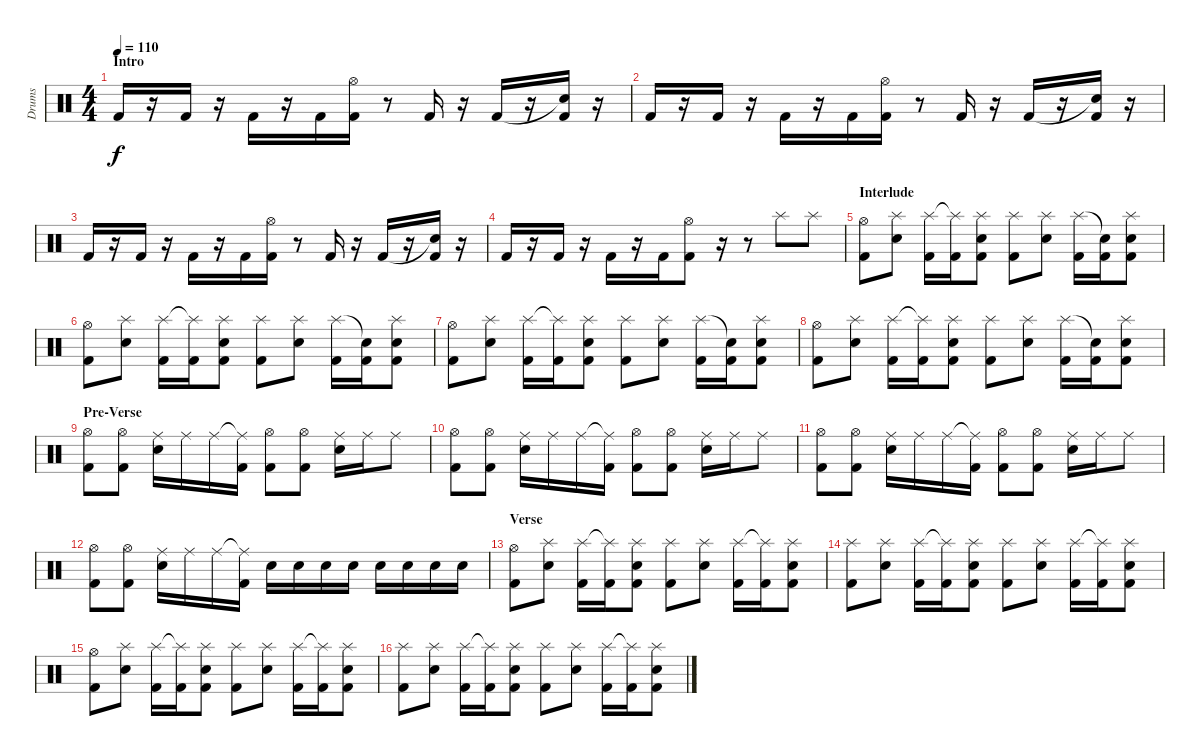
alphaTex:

\track ("Drums" "Drums") {instrument percussion}
\staff {score}
\articulation defaults
\ts (4 4)
\section ("" "Intro")
\tempo 110
\clef neutral
\ks c "Kick (hit) 2".16{dy f}
r.16 "Kick (hit) 2".16 r.16 "Kick (hit) 2".16 r.16 "Kick (hit) 2".16 ("Hi-Hat (open)" "Kick (hit) 2").16 r.8 "Kick (hit) 2".16 r.16 "Kick (hit) 2".16 r.16 ("Snare (hit)"{t} "Kick (hit) 2").16 r.16 |
"Kick (hit) 2".16 r.16 "Kick (hit) 2".16 r.16 "Kick (hit) 2".16 r.16 "Kick (hit) 2".16 ("Hi-Hat (open)" "Kick (hit) 2").16 r.8 "Kick (hit) 2".16 r.16 "Kick (hit) 2".16 r.16 ("Snare (hit)"{t} "Kick (hit) 2").16 r.16 |
"Kick (hit) 2".16 r.16 "Kick (hit) 2".16 r.16 "Kick (hit) 2".16 r.16 "Kick (hit) 2".16 ("Hi-Hat (open)" "Kick (hit) 2").16 r.8 "Kick (hit) 2".16 r.16 "Kick (hit) 2".16 r.16 ("Snare (hit)"{t} "Kick (hit) 2").16 r.16 |
"Kick (hit) 2".16 r.16 "Kick (hit) 2".16 r.16 "Kick (hit) 2".16 r.16 "Kick (hit) 2".16 ("Hi-Hat (open)" "Kick (hit) 2").8 r.16 r.8 "Splash (hit)".8 "Splash (hit)".8 |
\section ("" "Interlude")
("Hi-Hat (open)" "Kick (hit) 2").8 ("Splash (hit)" "Electric Snare (hit)").8 ("Splash (hit)" "Kick (hit) 2").16 ("Splash (hit)"{t} "Kick (hit) 2").16 ("Splash (hit)" "Electric Snare (hit)" "Kick (hit) 2").8 ("Splash (hit)" "Kick (hit) 2").8 ("Splash (hit)" "Electric Snare (hit)").8 ("Splash (hit)" "Kick (hit) 2").16 ("Snare (hit)"{t} "Kick (hit) 2").16 ("Splash (hit)" "Electric Snare (hit)" "Kick (hit) 2").8 |
("Hi-Hat (open)" "Kick (hit) 2").8 ("Splash (hit)" "Electric Snare (hit)").8 ("Splash (hit)" "Kick (hit) 2").16 ("Splash (hit)"{t} "Kick (hit) 2").16 ("Splash (hit)" "Electric Snare (hit)" "Kick (hit) 2").8 ("Splash (hit)" "Kick (hit) 2").8 ("Splash (hit)" "Electric Snare (hit)").8 ("Splash (hit)" "Kick (hit) 2").16 ("Snare (hit)"{t} "Kick (hit) 2").16 ("Splash (hit)" "Electric Snare (hit)" "Kick (hit) 2").8 |
("Hi-Hat (open)" "Kick (hit) 2").8 ("Splash (hit)" "Electric Snare (hit)").8 ("Splash (hit)" "Kick (hit) 2").16 ("Splash (hit)"{t} "Kick (hit) 2").16 ("Splash (hit)" "Electric Snare (hit)" "Kick (hit) 2").8 ("Splash (hit)" "Kick (hit) 2").8 ("Splash (hit)" "Electric Snare (hit)").8 ("Splash (hit)" "Kick (hit) 2").16 ("Snare (hit)"{t} "Kick (hit) 2").16 ("Splash (hit)" "Electric Snare (hit)" "Kick (hit) 2").8 |
("Hi-Hat (open)" "Kick (hit) 2").8 ("Splash (hit)" "Electric Snare (hit)").8 ("Splash (hit)" "Kick (hit) 2").16 ("Splash (hit)"{t} "Kick (hit) 2").16 ("Splash (hit)" "Electric Snare (hit)" "Kick (hit) 2").8 ("Splash (hit)" "Kick (hit) 2").8 ("Splash (hit)" "Electric Snare (hit)").8 ("Splash (hit)" "Kick (hit) 2").16 ("Snare (hit)"{t} "Kick (hit) 2").16 ("Splash (hit)" "Electric Snare (hit)" "Kick (hit) 2").8 |
\section ("" "Pre-Verse")
("Hi-Hat (open)" "Kick (hit) 2").8 ("Hi-Hat (open)" "Kick (hit) 2").8 ("Ride (middle)" "Electric Snare (hit)").16 "Ride (middle)".16 "Ride (middle)".16 ("Ride (middle)"{t} "Kick (hit) 2").16 ("Hi-Hat (open)" "Kick (hit) 2").8 ("Hi-Hat (open)" "Kick (hit) 2").8 ("Ride (middle)" "Electric Snare (hit)").16 "Ride (middle)".16 "Ride (middle)".8 |
("Hi-Hat (open)" "Kick (hit) 2").8 ("Hi-Hat (open)" "Kick (hit) 2").8 ("Ride (middle)" "Electric Snare (hit)").16 "Ride (middle)".16 "Ride (middle)".16 ("Ride (middle)"{t} "Kick (hit) 2").16 ("Hi-Hat (open)" "Kick (hit) 2").8 ("Hi-Hat (open)" "Kick (hit) 2").8 ("Ride (middle)" "Electric Snare (hit)").16 "Ride (middle)".16 "Ride (middle)".8 |
("Hi-Hat (open)" "Kick (hit) 2").8 ("Hi-Hat (open)" "Kick (hit) 2").8 ("Ride (middle)" "Electric Snare (hit)").16 "Ride (middle)".16 "Ride (middle)".16 ("Ride (middle)"{t} "Kick (hit) 2").16 ("Hi-Hat (open)" "Kick (hit) 2").8 ("Hi-Hat (open)" "Kick (hit) 2").8 ("Ride (middle)" "Electric Snare (hit)").16 "Ride (middle)".16 "Ride (middle)".8 |
("Hi-Hat (open)" "Kick (hit) 2").8 ("Hi-Hat (open)" "Kick (hit) 2").8 ("Ride (middle)" "Electric Snare (hit)").16 "Ride (middle)".16 "Ride (middle)".16 ("Ride (middle)"{t} "Kick (hit) 2").16 "Electric Snare (hit)".16 "Electric Snare (hit)".16 "Electric Snare (hit)".16 "Electric Snare (hit)".16 "Electric Snare (hit)".16 "Electric Snare (hit)".16 "Electric Snare (hit)".16 "Electric Snare (hit)".16 |
\section ("" "Verse")
("Hi-Hat (open)" "Kick (hit) 2").8 ("Splash (hit)" "Electric Snare (hit)").8 ("Splash (hit)" "Kick (hit) 2").16 ("Splash (hit)"{t} "Kick (hit) 2").16 ("Splash (hit)" "Electric Snare (hit)" "Kick (hit) 2").8 ("Splash (hit)" "Kick (hit) 2").8 ("Splash (hit)" "Electric Snare (hit)").8 ("Splash (hit)" "Kick (hit) 2").16 ("Splash (hit)"{t} "Kick (hit) 2").16 ("Splash (hit)" "Electric Snare (hit)" "Kick (hit) 2").8 |
("Splash (hit)" "Kick (hit) 2").8 ("Splash (hit)" "Electric Snare (hit)").8 ("Splash (hit)" "Kick (hit) 2").16 ("Splash (hit)"{t} "Kick (hit) 2").16 ("Splash (hit)" "Electric Snare (hit)" "Kick (hit) 2").8 ("Splash (hit)" "Kick (hit) 2").8 ("Splash (hit)" "Electric Snare (hit)").8 ("Splash (hit)" "Kick (hit) 2").16 ("Splash (hit)"{t} "Kick (hit) 2").16 ("Splash (hit)" "Electric Snare (hit)" "Kick (hit) 2").8 |
("Hi-Hat (open)" "Kick (hit) 2").8 ("Splash (hit)" "Electric Snare (hit)").8 ("Splash (hit)" "Kick (hit) 2").16 ("Splash (hit)"{t} "Kick (hit) 2").16 ("Splash (hit)" "Electric Snare (hit)" "Kick (hit) 2").8 ("Splash (hit)" "Kick (hit) 2").8 ("Splash (hit)" "Electric Snare (hit)").8 ("Splash (hit)" "Kick (hit) 2").16 ("Splash (hit)"{t} "Kick (hit) 2").16 ("Splash (hit)" "Electric Snare (hit)" "Kick (hit) 2").8 |
("Splash (hit)" "Kick (hit) 2").8 ("Splash (hit)" "Electric Snare (hit)").8 ("Splash (hit)" "Kick (hit) 2").16 ("Splash (hit)"{t} "Kick (hit) 2").16 ("Splash (hit)" "Electric Snare (hit)" "Kick (hit) 2").8 ("Splash (hit)" "Kick (hit) 2").8 ("Splash (hit)" "Electric Snare (hit)").8 ("Splash (hit)" "Kick (hit) 2").16 ("Splash (hit)"{t} "Kick (hit) 2").16 ("Splash (hit)" "Electric Snare (hit)" "Kick (hit) 2").8
